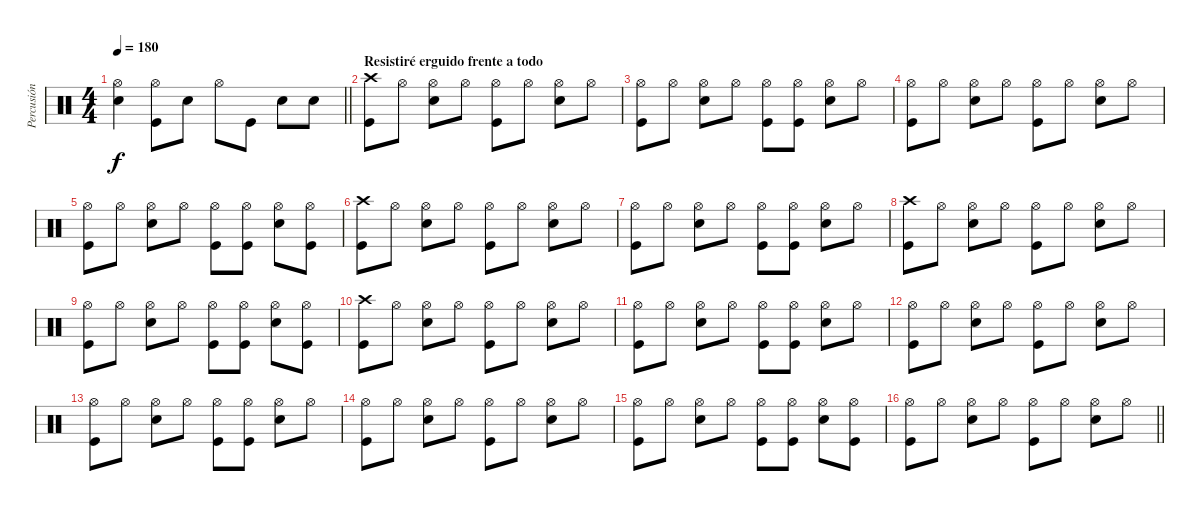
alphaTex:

\track ("Percusión" "Percusión") {instrument percussion}
\staff {score}
\articulation defaults
\ts (4 4)
\tempo 180
\clef neutral
\barLineRight lightlight
\ks c
("Hi-Hat (open)" "Electric Snare (hit)").4{dy f} ("Hi-Hat (open)" "Kick (hit)").8 "Electric Snare (hit)".8 "Hi-Hat (open)".8 "Kick (hit)".8 "Electric Snare (hit)".8 "Electric Snare (hit)".8 |
\section ("" "Resistiré erguido frente a todo")
("Crash high (hit)" "Kick (hit)").8 "Hi-Hat (open)".8 ("Hi-Hat (open)" "Electric Snare (hit)").8 "Hi-Hat (open)".8 ("Hi-Hat (open)" "Kick (hit)").8 "Hi-Hat (open)".8 ("Hi-Hat (open)" "Electric Snare (hit)").8 "Hi-Hat (open)".8 |
("Hi-Hat (open)" "Kick (hit)").8 "Hi-Hat (open)".8 ("Hi-Hat (open)" "Electric Snare (hit)").8 "Hi-Hat (open)".8 ("Hi-Hat (open)" "Kick (hit)").8 ("Hi-Hat (open)" "Kick (hit)").8 ("Hi-Hat (open)" "Electric Snare (hit)").8 "Hi-Hat (open)".8 |
("Hi-Hat (open)" "Kick (hit)").8 "Hi-Hat (open)".8 ("Hi-Hat (open)" "Electric Snare (hit)").8 "Hi-Hat (open)".8 ("Hi-Hat (open)" "Kick (hit)").8 "Hi-Hat (open)".8 ("Hi-Hat (open)" "Electric Snare (hit)").8 "Hi-Hat (open)".8 |
("Hi-Hat (open)" "Kick (hit)").8 "Hi-Hat (open)".8 ("Hi-Hat (open)" "Electric Snare (hit)").8 "Hi-Hat (open)".8 ("Hi-Hat (open)" "Kick (hit)").8 ("Hi-Hat (open)" "Kick (hit)").8 ("Hi-Hat (open)" "Electric Snare (hit)").8 ("Hi-Hat (open)" "Kick (hit)").8 |
("Crash high (hit)" "Kick (hit)").8 "Hi-Hat (open)".8 ("Hi-Hat (open)" "Electric Snare (hit)").8 "Hi-Hat (open)".8 ("Hi-Hat (open)" "Kick (hit)").8 "Hi-Hat (open)".8 ("Hi-Hat (open)" "Electric Snare (hit)").8 "Hi-Hat (open)".8 |
("Hi-Hat (open)" "Kick (hit)").8 "Hi-Hat (open)".8 ("Hi-Hat (open)" "Electric Snare (hit)").8 "Hi-Hat (open)".8 ("Hi-Hat (open)" "Kick (hit)").8 ("Hi-Hat (open)" "Kick (hit)").8 ("Hi-Hat (open)" "Electric Snare (hit)").8 "Hi-Hat (open)".8 |
("Crash high (hit)" "Kick (hit)").8 "Hi-Hat (open)".8 ("Hi-Hat (open)" "Electric Snare (hit)").8 "Hi-Hat (open)".8 ("Hi-Hat (open)" "Kick (hit)").8 "Hi-Hat (open)".8 ("Hi-Hat (open)" "Electric Snare (hit)").8 "Hi-Hat (open)".8 |
("Hi-Hat (open)" "Kick (hit)").8 "Hi-Hat (open)".8 ("Hi-Hat (open)" "Electric Snare (hit)").8 "Hi-Hat (open)".8 ("Hi-Hat (open)" "Kick (hit)").8 ("Hi-Hat (open)" "Kick (hit)").8 ("Hi-Hat (open)" "Electric Snare (hit)").8 ("Hi-Hat (open)" "Kick (hit)").8 |
("Crash high (hit)" "Kick (hit)").8 "Hi-Hat (open)".8 ("Hi-Hat (open)" "Electric Snare (hit)").8 "Hi-Hat (open)".8 ("Hi-Hat (open)" "Kick (hit)").8 "Hi-Hat (open)".8 ("Hi-Hat (open)" "Electric Snare (hit)").8 "Hi-Hat (open)".8 |
("Hi-Hat (open)" "Kick (hit)").8 "Hi-Hat (open)".8 ("Hi-Hat (open)" "Electric Snare (hit)").8 "Hi-Hat (open)".8 ("Hi-Hat (open)" "Kick (hit)").8 ("Hi-Hat (open)" "Kick (hit)").8 ("Hi-Hat (open)" "Electric Snare (hit)").8 "Hi-Hat (open)".8 |
("Hi-Hat (open)" "Kick (hit)").8 "Hi-Hat (open)".8 ("Hi-Hat (open)" "Electric Snare (hit)").8 "Hi-Hat (open)".8 ("Hi-Hat (open)" "Kick (hit)").8 "Hi-Hat (open)".8 ("Hi-Hat (open)" "Electric Snare (hit)").8 "Hi-Hat (open)".8 |
("Hi-Hat (open)" "Kick (hit)").8 "Hi-Hat (open)".8 ("Hi-Hat (open)" "Electric Snare (hit)").8 "Hi-Hat (open)".8 ("Hi-Hat (open)" "Kick (hit)").8 ("Hi-Hat (open)" "Kick (hit)").8 ("Hi-Hat (open)" "Electric Snare (hit)").8 "Hi-Hat (open)".8 |
("Hi-Hat (open)" "Kick (hit)").8 "Hi-Hat (open)".8 ("Hi-Hat (open)" "Electric Snare (hit)").8 "Hi-Hat (open)".8 ("Hi-Hat (open)" "Kick (hit)").8 "Hi-Hat (open)".8 ("Hi-Hat (open)" "Electric Snare (hit)").8 "Hi-Hat (open)".8 |
("Hi-Hat (open)" "Kick (hit)").8 "Hi-Hat (open)".8 ("Hi-Hat (open)" "Electric Snare (hit)").8 "Hi-Hat (open)".8 ("Hi-Hat (open)" "Kick (hit)").8 ("Hi-Hat (open)" "Kick (hit)").8 ("Hi-Hat (open)" "Electric Snare (hit)").8 ("Hi-Hat (open)" "Kick (hit)").8 |
\barLineRight lightlight
("Hi-Hat (open)" "Kick (hit)").8 "Hi-Hat (open)".8 ("Hi-Hat (open)" "Electric Snare (hit)").8 "Hi-Hat (open)".8 ("Hi-Hat (open)" "Kick (hit)").8 "Hi-Hat (open)".8 ("Hi-Hat (open)" "Electric Snare (hit)").8 "Hi-Hat (open)".8
